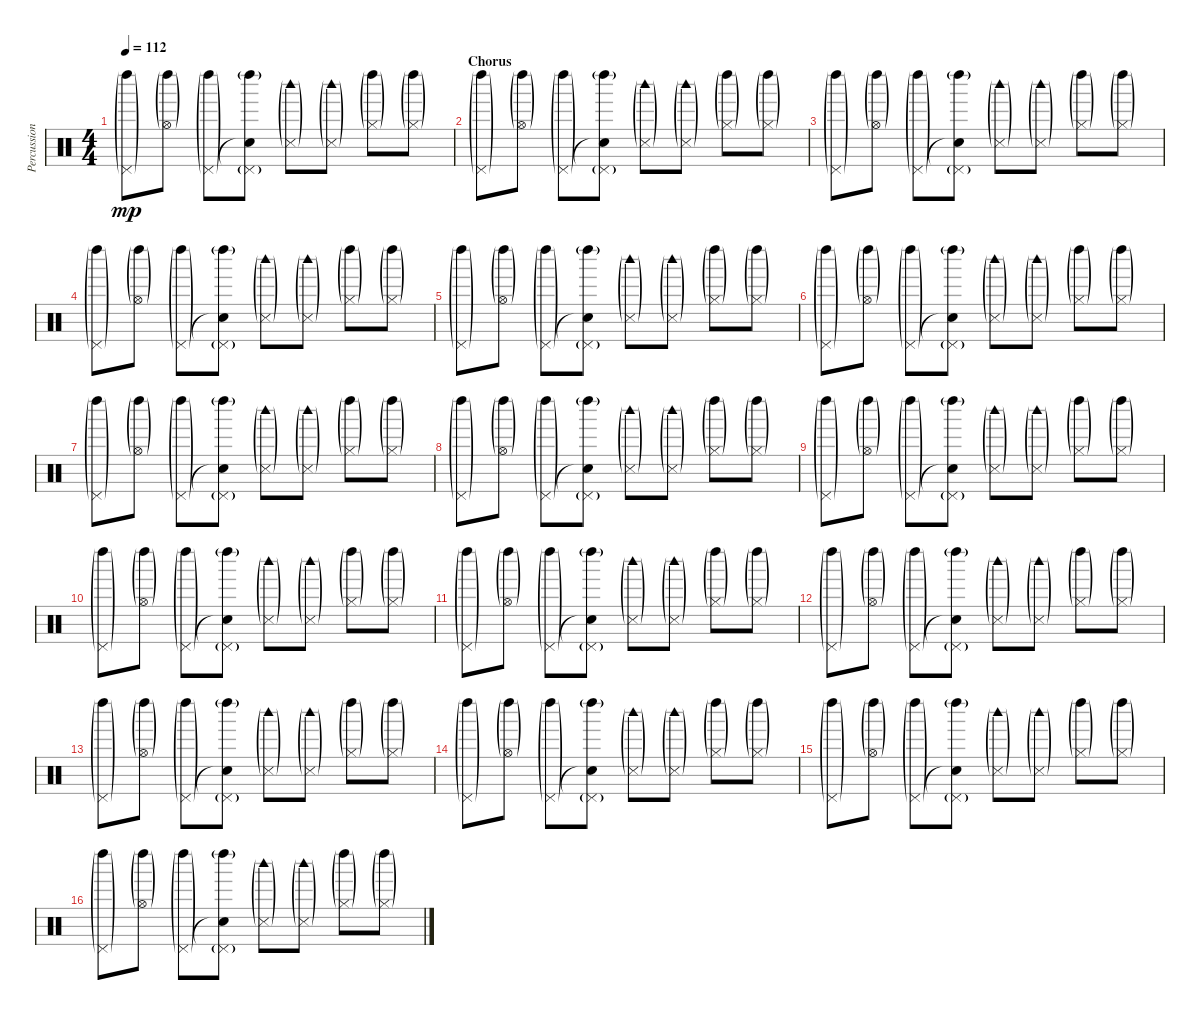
\track ("Percussion" "Percussion") {instrument percussion}
\staff {score}
\articulation defaults
\ts (4 4)
\tempo 112
\clef neutral
\ks c
("Left Maraca (hit)"{g} "Pedal Hi-Hat (hit)"{g}).8{dy mp} ("Left Maraca (hit)"{g} "Hi-Hat (open)"{g}).8 ("Left Maraca (hit)"{g} "Pedal Hi-Hat (hit)"{g}).8 ("Left Maraca (hit)"{g} "Snare (hit)"{t} "Pedal Hi-Hat (hit)"{g}).8 ("Snare (side stick) 3"{g} "Woodblock high (hit)"{g}).8 ("Snare (side stick) 3"{g} "Woodblock high (hit)"{g}).8 ("Left Maraca (hit)"{g} "Hi-Hat (closed)"{g}).8 ("Left Maraca (hit)"{g} "Hi-Hat (closed)"{g}).8 |
\section ("" "Chorus")
("Left Maraca (hit)"{g} "Pedal Hi-Hat (hit)"{g}).8 ("Left Maraca (hit)"{g} "Hi-Hat (open)"{g}).8 ("Left Maraca (hit)"{g} "Pedal Hi-Hat (hit)"{g}).8 ("Left Maraca (hit)"{g} "Snare (hit)"{t} "Pedal Hi-Hat (hit)"{g}).8 ("Snare (side stick) 3"{g} "Woodblock high (hit)"{g}).8 ("Snare (side stick) 3"{g} "Woodblock high (hit)"{g}).8 ("Left Maraca (hit)"{g} "Hi-Hat (closed)"{g}).8 ("Left Maraca (hit)"{g} "Hi-Hat (closed)"{g}).8 |
("Left Maraca (hit)"{g} "Pedal Hi-Hat (hit)"{g}).8 ("Left Maraca (hit)"{g} "Hi-Hat (open)"{g}).8 ("Left Maraca (hit)"{g} "Pedal Hi-Hat (hit)"{g}).8 ("Left Maraca (hit)"{g} "Snare (hit)"{t} "Pedal Hi-Hat (hit)"{g}).8 ("Snare (side stick) 3"{g} "Woodblock high (hit)"{g}).8 ("Snare (side stick) 3"{g} "Woodblock high (hit)"{g}).8 ("Left Maraca (hit)"{g} "Hi-Hat (closed)"{g}).8 ("Left Maraca (hit)"{g} "Hi-Hat (closed)"{g}).8 |
("Left Maraca (hit)"{g} "Pedal Hi-Hat (hit)"{g}).8 ("Left Maraca (hit)"{g} "Hi-Hat (open)"{g}).8 ("Left Maraca (hit)"{g} "Pedal Hi-Hat (hit)"{g}).8 ("Left Maraca (hit)"{g} "Snare (hit)"{t} "Pedal Hi-Hat (hit)"{g}).8 ("Snare (side stick) 3"{g} "Woodblock high (hit)"{g}).8 ("Snare (side stick) 3"{g} "Woodblock high (hit)"{g}).8 ("Left Maraca (hit)"{g} "Hi-Hat (closed)"{g}).8 ("Left Maraca (hit)"{g} "Hi-Hat (closed)"{g}).8 |
("Left Maraca (hit)"{g} "Pedal Hi-Hat (hit)"{g}).8 ("Left Maraca (hit)"{g} "Hi-Hat (open)"{g}).8 ("Left Maraca (hit)"{g} "Pedal Hi-Hat (hit)"{g}).8 ("Left Maraca (hit)"{g} "Snare (hit)"{t} "Pedal Hi-Hat (hit)"{g}).8 ("Snare (side stick) 3"{g} "Woodblock high (hit)"{g}).8 ("Snare (side stick) 3"{g} "Woodblock high (hit)"{g}).8 ("Left Maraca (hit)"{g} "Hi-Hat (closed)"{g}).8 ("Left Maraca (hit)"{g} "Hi-Hat (closed)"{g}).8 |
("Left Maraca (hit)"{g} "Pedal Hi-Hat (hit)"{g}).8 ("Left Maraca (hit)"{g} "Hi-Hat (open)"{g}).8 ("Left Maraca (hit)"{g} "Pedal Hi-Hat (hit)"{g}).8 ("Left Maraca (hit)"{g} "Snare (hit)"{t} "Pedal Hi-Hat (hit)"{g}).8 ("Snare (side stick) 3"{g} "Woodblock high (hit)"{g}).8 ("Snare (side stick) 3"{g} "Woodblock high (hit)"{g}).8 ("Left Maraca (hit)"{g} "Hi-Hat (closed)"{g}).8 ("Left Maraca (hit)"{g} "Hi-Hat (closed)"{g}).8 |
("Left Maraca (hit)"{g} "Pedal Hi-Hat (hit)"{g}).8 ("Left Maraca (hit)"{g} "Hi-Hat (open)"{g}).8 ("Left Maraca (hit)"{g} "Pedal Hi-Hat (hit)"{g}).8 ("Left Maraca (hit)"{g} "Snare (hit)"{t} "Pedal Hi-Hat (hit)"{g}).8 ("Snare (side stick) 3"{g} "Woodblock high (hit)"{g}).8 ("Snare (side stick) 3"{g} "Woodblock high (hit)"{g}).8 ("Left Maraca (hit)"{g} "Hi-Hat (closed)"{g}).8 ("Left Maraca (hit)"{g} "Hi-Hat (closed)"{g}).8 |
("Left Maraca (hit)"{g} "Pedal Hi-Hat (hit)"{g}).8 ("Left Maraca (hit)"{g} "Hi-Hat (open)"{g}).8 ("Left Maraca (hit)"{g} "Pedal Hi-Hat (hit)"{g}).8 ("Left Maraca (hit)"{g} "Snare (hit)"{t} "Pedal Hi-Hat (hit)"{g}).8 ("Snare (side stick) 3"{g} "Woodblock high (hit)"{g}).8 ("Snare (side stick) 3"{g} "Woodblock high (hit)"{g}).8 ("Left Maraca (hit)"{g} "Hi-Hat (closed)"{g}).8 ("Left Maraca (hit)"{g} "Hi-Hat (closed)"{g}).8 |
("Left Maraca (hit)"{g} "Pedal Hi-Hat (hit)"{g}).8 ("Left Maraca (hit)"{g} "Hi-Hat (open)"{g}).8 ("Left Maraca (hit)"{g} "Pedal Hi-Hat (hit)"{g}).8 ("Left Maraca (hit)"{g} "Snare (hit)"{t} "Pedal Hi-Hat (hit)"{g}).8 ("Snare (side stick) 3"{g} "Woodblock high (hit)"{g}).8 ("Snare (side stick) 3"{g} "Woodblock high (hit)"{g}).8 ("Left Maraca (hit)"{g} "Hi-Hat (closed)"{g}).8 ("Left Maraca (hit)"{g} "Hi-Hat (closed)"{g}).8 |
("Left Maraca (hit)"{g} "Pedal Hi-Hat (hit)"{g}).8 ("Left Maraca (hit)"{g} "Hi-Hat (open)"{g}).8 ("Left Maraca (hit)"{g} "Pedal Hi-Hat (hit)"{g}).8 ("Left Maraca (hit)"{g} "Snare (hit)"{t} "Pedal Hi-Hat (hit)"{g}).8 ("Snare (side stick) 3"{g} "Woodblock high (hit)"{g}).8 ("Snare (side stick) 3"{g} "Woodblock high (hit)"{g}).8 ("Left Maraca (hit)"{g} "Hi-Hat (closed)"{g}).8 ("Left Maraca (hit)"{g} "Hi-Hat (closed)"{g}).8 |
("Left Maraca (hit)"{g} "Pedal Hi-Hat (hit)"{g}).8 ("Left Maraca (hit)"{g} "Hi-Hat (open)"{g}).8 ("Left Maraca (hit)"{g} "Pedal Hi-Hat (hit)"{g}).8 ("Left Maraca (hit)"{g} "Snare (hit)"{t} "Pedal Hi-Hat (hit)"{g}).8 ("Snare (side stick) 3"{g} "Woodblock high (hit)"{g}).8 ("Snare (side stick) 3"{g} "Woodblock high (hit)"{g}).8 ("Left Maraca (hit)"{g} "Hi-Hat (closed)"{g}).8 ("Left Maraca (hit)"{g} "Hi-Hat (closed)"{g}).8 |
("Left Maraca (hit)"{g} "Pedal Hi-Hat (hit)"{g}).8 ("Left Maraca (hit)"{g} "Hi-Hat (open)"{g}).8 ("Left Maraca (hit)"{g} "Pedal Hi-Hat (hit)"{g}).8 ("Left Maraca (hit)"{g} "Snare (hit)"{t} "Pedal Hi-Hat (hit)"{g}).8 ("Snare (side stick) 3"{g} "Woodblock high (hit)"{g}).8 ("Snare (side stick) 3"{g} "Woodblock high (hit)"{g}).8 ("Left Maraca (hit)"{g} "Hi-Hat (closed)"{g}).8 ("Left Maraca (hit)"{g} "Hi-Hat (closed)"{g}).8 |
("Left Maraca (hit)"{g} "Pedal Hi-Hat (hit)"{g}).8 ("Left Maraca (hit)"{g} "Hi-Hat (open)"{g}).8 ("Left Maraca (hit)"{g} "Pedal Hi-Hat (hit)"{g}).8 ("Left Maraca (hit)"{g} "Snare (hit)"{t} "Pedal Hi-Hat (hit)"{g}).8 ("Snare (side stick) 3"{g} "Woodblock high (hit)"{g}).8 ("Snare (side stick) 3"{g} "Woodblock high (hit)"{g}).8 ("Left Maraca (hit)"{g} "Hi-Hat (closed)"{g}).8 ("Left Maraca (hit)"{g} "Hi-Hat (closed)"{g}).8 |
("Left Maraca (hit)"{g} "Pedal Hi-Hat (hit)"{g}).8 ("Left Maraca (hit)"{g} "Hi-Hat (open)"{g}).8 ("Left Maraca (hit)"{g} "Pedal Hi-Hat (hit)"{g}).8 ("Left Maraca (hit)"{g} "Snare (hit)"{t} "Pedal Hi-Hat (hit)"{g}).8 ("Snare (side stick) 3"{g} "Woodblock high (hit)"{g}).8 ("Snare (side stick) 3"{g} "Woodblock high (hit)"{g}).8 ("Left Maraca (hit)"{g} "Hi-Hat (closed)"{g}).8 ("Left Maraca (hit)"{g} "Hi-Hat (closed)"{g}).8 |
("Left Maraca (hit)"{g} "Pedal Hi-Hat (hit)"{g}).8 ("Left Maraca (hit)"{g} "Hi-Hat (open)"{g}).8 ("Left Maraca (hit)"{g} "Pedal Hi-Hat (hit)"{g}).8 ("Left Maraca (hit)"{g} "Snare (hit)"{t} "Pedal Hi-Hat (hit)"{g}).8 ("Snare (side stick) 3"{g} "Woodblock high (hit)"{g}).8 ("Snare (side stick) 3"{g} "Woodblock high (hit)"{g}).8 ("Left Maraca (hit)"{g} "Hi-Hat (closed)"{g}).8 ("Left Maraca (hit)"{g} "Hi-Hat (closed)"{g}).8 |
("Left Maraca (hit)"{g} "Pedal Hi-Hat (hit)"{g}).8 ("Left Maraca (hit)"{g} "Hi-Hat (open)"{g}).8 ("Left Maraca (hit)"{g} "Pedal Hi-Hat (hit)"{g}).8 ("Left Maraca (hit)"{g} "Snare (hit)"{t} "Pedal Hi-Hat (hit)"{g}).8 ("Snare (side stick) 3"{g} "Woodblock high (hit)"{g}).8 ("Snare (side stick) 3"{g} "Woodblock high (hit)"{g}).8 ("Left Maraca (hit)"{g} "Hi-Hat (closed)"{g}).8 ("Left Maraca (hit)"{g} "Hi-Hat (closed)"{g}).8
